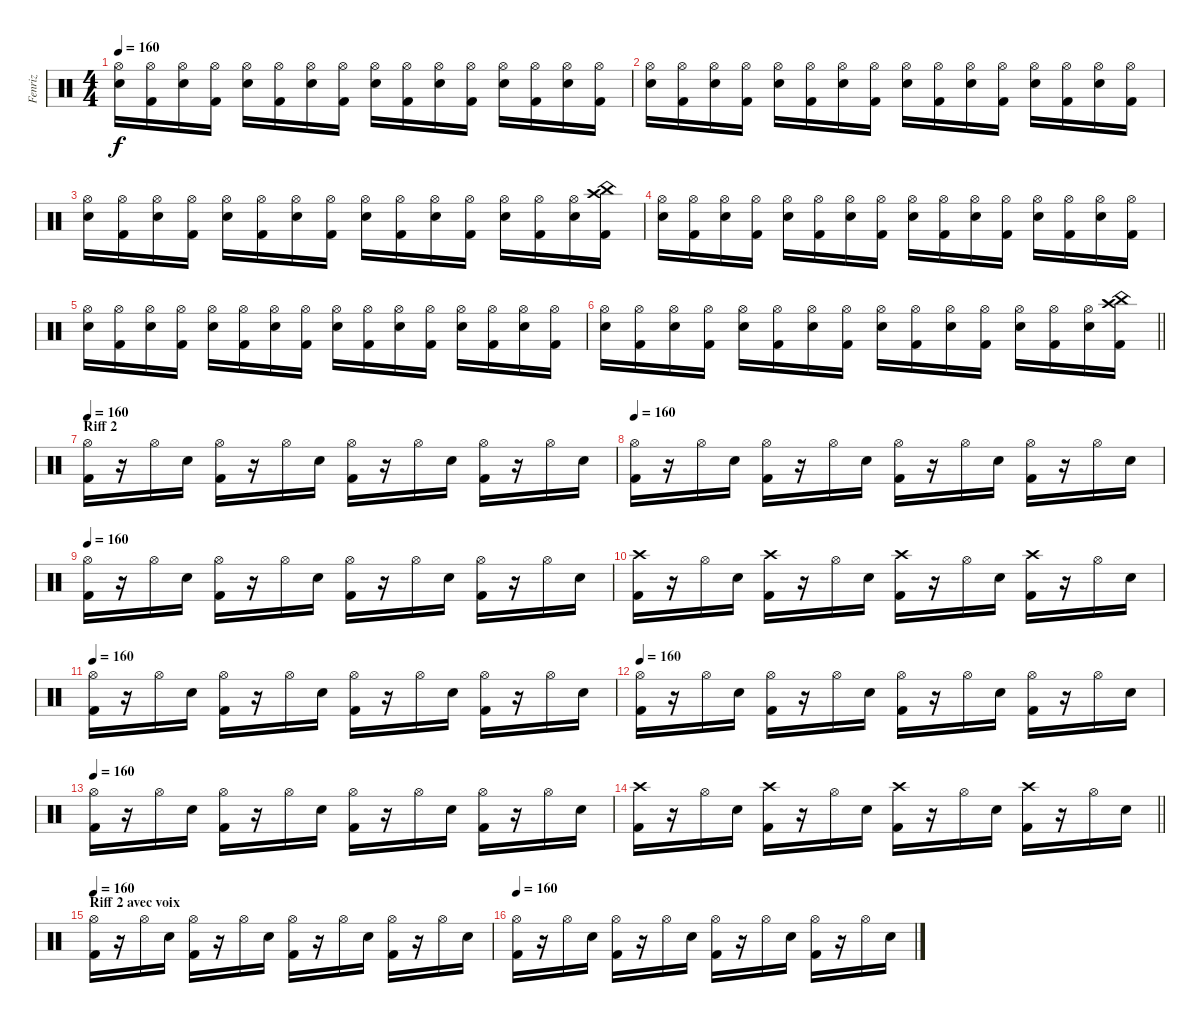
\track ("Fenriz" "Fenriz") {instrument percussion}
\staff {score}
\articulation defaults
\ts (4 4)
\tempo 160
\clef neutral
\ks c
("Hi-Hat (open)" "Electric Snare (hit)").16{dy f} ("Hi-Hat (open)" "Kick (hit) 2").16 ("Hi-Hat (open)" "Electric Snare (hit)").16 ("Hi-Hat (open)" "Kick (hit) 2").16 ("Hi-Hat (open)" "Electric Snare (hit)").16 ("Hi-Hat (open)" "Kick (hit) 2").16 ("Hi-Hat (open)" "Electric Snare (hit)").16 ("Hi-Hat (open)" "Kick (hit) 2").16 ("Hi-Hat (open)" "Electric Snare (hit)").16 ("Hi-Hat (open)" "Kick (hit) 2").16 ("Hi-Hat (open)" "Electric Snare (hit)").16 ("Hi-Hat (open)" "Kick (hit) 2").16 ("Hi-Hat (open)" "Electric Snare (hit)").16 ("Hi-Hat (open)" "Kick (hit) 2").16 ("Hi-Hat (open)" "Electric Snare (hit)").16 ("Hi-Hat (open)" "Kick (hit) 2").16 |
("Hi-Hat (open)" "Electric Snare (hit)").16 ("Hi-Hat (open)" "Kick (hit) 2").16 ("Hi-Hat (open)" "Electric Snare (hit)").16 ("Hi-Hat (open)" "Kick (hit) 2").16 ("Hi-Hat (open)" "Electric Snare (hit)").16 ("Hi-Hat (open)" "Kick (hit) 2").16 ("Hi-Hat (open)" "Electric Snare (hit)").16 ("Hi-Hat (open)" "Kick (hit) 2").16 ("Hi-Hat (open)" "Electric Snare (hit)").16 ("Hi-Hat (open)" "Kick (hit) 2").16 ("Hi-Hat (open)" "Electric Snare (hit)").16 ("Hi-Hat (open)" "Kick (hit) 2").16 ("Hi-Hat (open)" "Electric Snare (hit)").16 ("Hi-Hat (open)" "Kick (hit) 2").16 ("Hi-Hat (open)" "Electric Snare (hit)").16 ("Hi-Hat (open)" "Kick (hit) 2").16 |
("Hi-Hat (open)" "Electric Snare (hit)").16 ("Hi-Hat (open)" "Kick (hit) 2").16 ("Hi-Hat (open)" "Electric Snare (hit)").16 ("Hi-Hat (open)" "Kick (hit) 2").16 ("Hi-Hat (open)" "Electric Snare (hit)").16 ("Hi-Hat (open)" "Kick (hit) 2").16 ("Hi-Hat (open)" "Electric Snare (hit)").16 ("Hi-Hat (open)" "Kick (hit) 2").16 ("Hi-Hat (open)" "Electric Snare (hit)").16 ("Hi-Hat (open)" "Kick (hit) 2").16 ("Hi-Hat (open)" "Electric Snare (hit)").16 ("Hi-Hat (open)" "Kick (hit) 2").16 ("Hi-Hat (open)" "Electric Snare (hit)").16 ("Hi-Hat (open)" "Kick (hit) 2").16 ("Hi-Hat (open)" "Electric Snare (hit)").16 ("China (hit)" "Crash high (hit)" "Kick (hit) 2").16 |
("Hi-Hat (open)" "Electric Snare (hit)").16 ("Hi-Hat (open)" "Kick (hit) 2").16 ("Hi-Hat (open)" "Electric Snare (hit)").16 ("Hi-Hat (open)" "Kick (hit) 2").16 ("Hi-Hat (open)" "Electric Snare (hit)").16 ("Hi-Hat (open)" "Kick (hit) 2").16 ("Hi-Hat (open)" "Electric Snare (hit)").16 ("Hi-Hat (open)" "Kick (hit) 2").16 ("Hi-Hat (open)" "Electric Snare (hit)").16 ("Hi-Hat (open)" "Kick (hit) 2").16 ("Hi-Hat (open)" "Electric Snare (hit)").16 ("Hi-Hat (open)" "Kick (hit) 2").16 ("Hi-Hat (open)" "Electric Snare (hit)").16 ("Hi-Hat (open)" "Kick (hit) 2").16 ("Hi-Hat (open)" "Electric Snare (hit)").16 ("Hi-Hat (open)" "Kick (hit) 2").16 |
("Hi-Hat (open)" "Electric Snare (hit)").16 ("Hi-Hat (open)" "Kick (hit) 2").16 ("Hi-Hat (open)" "Electric Snare (hit)").16 ("Hi-Hat (open)" "Kick (hit) 2").16 ("Hi-Hat (open)" "Electric Snare (hit)").16 ("Hi-Hat (open)" "Kick (hit) 2").16 ("Hi-Hat (open)" "Electric Snare (hit)").16 ("Hi-Hat (open)" "Kick (hit) 2").16 ("Hi-Hat (open)" "Electric Snare (hit)").16 ("Hi-Hat (open)" "Kick (hit) 2").16 ("Hi-Hat (open)" "Electric Snare (hit)").16 ("Hi-Hat (open)" "Kick (hit) 2").16 ("Hi-Hat (open)" "Electric Snare (hit)").16 ("Hi-Hat (open)" "Kick (hit) 2").16 ("Hi-Hat (open)" "Electric Snare (hit)").16 ("Hi-Hat (open)" "Kick (hit) 2").16 |
\barLineRight lightlight
("Hi-Hat (open)" "Electric Snare (hit)").16 ("Hi-Hat (open)" "Kick (hit) 2").16 ("Hi-Hat (open)" "Electric Snare (hit)").16 ("Hi-Hat (open)" "Kick (hit) 2").16 ("Hi-Hat (open)" "Electric Snare (hit)").16 ("Hi-Hat (open)" "Kick (hit) 2").16 ("Hi-Hat (open)" "Electric Snare (hit)").16 ("Hi-Hat (open)" "Kick (hit) 2").16 ("Hi-Hat (open)" "Electric Snare (hit)").16 ("Hi-Hat (open)" "Kick (hit) 2").16 ("Hi-Hat (open)" "Electric Snare (hit)").16 ("Hi-Hat (open)" "Kick (hit) 2").16 ("Hi-Hat (open)" "Electric Snare (hit)").16 ("Hi-Hat (open)" "Kick (hit) 2").16 ("Hi-Hat (open)" "Electric Snare (hit)").16 ("China (hit)" "Crash high (hit)" "Kick (hit) 2").16 |
\section ("" "Riff 2")
\tempo 160
("Hi-Hat (open)" "Kick (hit) 2").16 r.16 "Hi-Hat (open)".16 "Electric Snare (hit)".16 ("Hi-Hat (open)" "Kick (hit) 2").16 r.16 "Hi-Hat (open)".16 "Electric Snare (hit)".16 ("Hi-Hat (open)" "Kick (hit) 2").16 r.16 "Hi-Hat (open)".16 "Electric Snare (hit)".16 ("Hi-Hat (open)" "Kick (hit) 2").16 r.16 "Hi-Hat (open)".16 "Electric Snare (hit)".16 |
\tempo 160
("Hi-Hat (open)" "Kick (hit) 2").16 r.16 "Hi-Hat (open)".16 "Electric Snare (hit)".16 ("Hi-Hat (open)" "Kick (hit) 2").16 r.16 "Hi-Hat (open)".16 "Electric Snare (hit)".16 ("Hi-Hat (open)" "Kick (hit) 2").16 r.16 "Hi-Hat (open)".16 "Electric Snare (hit)".16 ("Hi-Hat (open)" "Kick (hit) 2").16 r.16 "Hi-Hat (open)".16 "Electric Snare (hit)".16 |
\tempo 160
("Hi-Hat (open)" "Kick (hit) 2").16 r.16 "Hi-Hat (open)".16 "Electric Snare (hit)".16 ("Hi-Hat (open)" "Kick (hit) 2").16 r.16 "Hi-Hat (open)".16 "Electric Snare (hit)".16 ("Hi-Hat (open)" "Kick (hit) 2").16 r.16 "Hi-Hat (open)".16 "Electric Snare (hit)".16 ("Hi-Hat (open)" "Kick (hit) 2").16 r.16 "Hi-Hat (open)".16 "Electric Snare (hit)".16 |
("Crash high (hit)" "Kick (hit) 2").16 r.16 "Hi-Hat (open)".16 "Electric Snare (hit)".16 ("Crash high (hit)" "Kick (hit) 2").16 r.16 "Hi-Hat (open)".16 "Electric Snare (hit)".16 ("Crash high (hit)" "Kick (hit) 2").16 r.16 "Hi-Hat (open)".16 "Electric Snare (hit)".16 ("Crash high (hit)" "Kick (hit) 2").16 r.16 "Hi-Hat (open)".16 "Electric Snare (hit)".16 |
\tempo 160
("Hi-Hat (open)" "Kick (hit) 2").16 r.16 "Hi-Hat (open)".16 "Electric Snare (hit)".16 ("Hi-Hat (open)" "Kick (hit) 2").16 r.16 "Hi-Hat (open)".16 "Electric Snare (hit)".16 ("Hi-Hat (open)" "Kick (hit) 2").16 r.16 "Hi-Hat (open)".16 "Electric Snare (hit)".16 ("Hi-Hat (open)" "Kick (hit) 2").16 r.16 "Hi-Hat (open)".16 "Electric Snare (hit)".16 |
\tempo 160
("Hi-Hat (open)" "Kick (hit) 2").16 r.16 "Hi-Hat (open)".16 "Electric Snare (hit)".16 ("Hi-Hat (open)" "Kick (hit) 2").16 r.16 "Hi-Hat (open)".16 "Electric Snare (hit)".16 ("Hi-Hat (open)" "Kick (hit) 2").16 r.16 "Hi-Hat (open)".16 "Electric Snare (hit)".16 ("Hi-Hat (open)" "Kick (hit) 2").16 r.16 "Hi-Hat (open)".16 "Electric Snare (hit)".16 |
\tempo 160
("Hi-Hat (open)" "Kick (hit) 2").16 r.16 "Hi-Hat (open)".16 "Electric Snare (hit)".16 ("Hi-Hat (open)" "Kick (hit) 2").16 r.16 "Hi-Hat (open)".16 "Electric Snare (hit)".16 ("Hi-Hat (open)" "Kick (hit) 2").16 r.16 "Hi-Hat (open)".16 "Electric Snare (hit)".16 ("Hi-Hat (open)" "Kick (hit) 2").16 r.16 "Hi-Hat (open)".16 "Electric Snare (hit)".16 |
\barLineRight lightlight
("Crash high (hit)" "Kick (hit) 2").16 r.16 "Hi-Hat (open)".16 "Electric Snare (hit)".16 ("Crash high (hit)" "Kick (hit) 2").16 r.16 "Hi-Hat (open)".16 "Electric Snare (hit)".16 ("Crash high (hit)" "Kick (hit) 2").16 r.16 "Hi-Hat (open)".16 "Electric Snare (hit)".16 ("Crash high (hit)" "Kick (hit) 2").16 r.16 "Hi-Hat (open)".16 "Electric Snare (hit)".16 |
\section ("" "Riff 2 avec voix")
\tempo 160
("Hi-Hat (open)" "Kick (hit) 2").16 r.16 "Hi-Hat (open)".16 "Electric Snare (hit)".16 ("Hi-Hat (open)" "Kick (hit) 2").16 r.16 "Hi-Hat (open)".16 "Electric Snare (hit)".16 ("Hi-Hat (open)" "Kick (hit) 2").16 r.16 "Hi-Hat (open)".16 "Electric Snare (hit)".16 ("Hi-Hat (open)" "Kick (hit) 2").16 r.16 "Hi-Hat (open)".16 "Electric Snare (hit)".16 |
\tempo 160
("Hi-Hat (open)" "Kick (hit) 2").16 r.16 "Hi-Hat (open)".16 "Electric Snare (hit)".16 ("Hi-Hat (open)" "Kick (hit) 2").16 r.16 "Hi-Hat (open)".16 "Electric Snare (hit)".16 ("Hi-Hat (open)" "Kick (hit) 2").16 r.16 "Hi-Hat (open)".16 "Electric Snare (hit)".16 ("Hi-Hat (open)" "Kick (hit) 2").16 r.16 "Hi-Hat (open)".16 "Electric Snare (hit)".16
